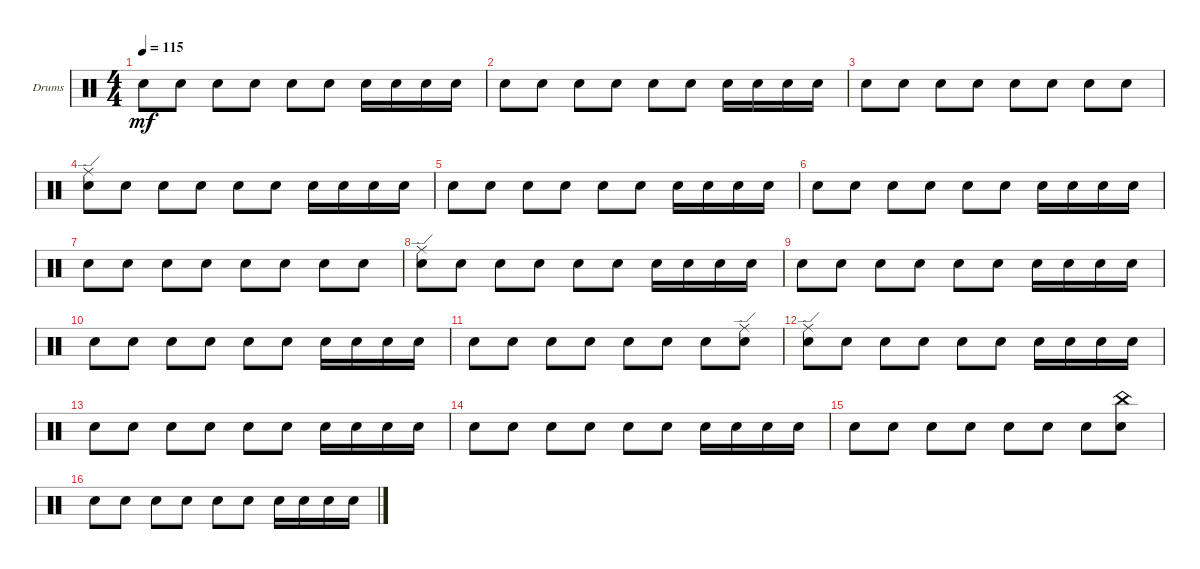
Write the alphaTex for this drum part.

\defaultSystemsLayout 4
\bracketExtendMode groupsimilarinstruments
\firstSystemTrackNameOrientation horizontal
\otherSystemsTrackNameOrientation horizontal
\track ("Drumkit" "Drums") {instrument percussion}
\staff {score}
\articulation defaults
\ts (4 4)
\tempo 115
\clef neutral
\ks c "Snare (hit) 2".8{dy mf} "Snare (hit) 2".8 "Snare (hit) 2".8 "Snare (hit) 2".8 "Snare (hit) 2".8 "Snare (hit) 2".8 "Snare (hit) 2".16 "Snare (hit) 2".16 "Snare (hit) 2".16 "Snare (hit) 2".16
|
"Snare (hit) 2".8 "Snare (hit) 2".8 "Snare (hit) 2".8 "Snare (hit) 2".8 "Snare (hit) 2".8 "Snare (hit) 2".8 "Snare (hit) 2".16 "Snare (hit) 2".16 "Snare (hit) 2".16 "Snare (hit) 2".16 |
"Snare (hit) 2".8 "Snare (hit) 2".8 "Snare (hit) 2".8 "Snare (hit) 2".8 "Snare (hit) 2".8 "Snare (hit) 2".8 "Snare (hit) 2".8 "Snare (hit) 2".8 |
("Snare (hit) 2" "Ride (edge)").8 "Snare (hit) 2".8 "Snare (hit) 2".8 "Snare (hit) 2".8 "Snare (hit) 2".8 "Snare (hit) 2".8 "Snare (hit) 2".16 "Snare (hit) 2".16 "Snare (hit) 2".16 "Snare (hit) 2".16 |
"Snare (hit) 2".8 "Snare (hit) 2".8 "Snare (hit) 2".8 "Snare (hit) 2".8 "Snare (hit) 2".8 "Snare (hit) 2".8 "Snare (hit) 2".16 "Snare (hit) 2".16 "Snare (hit) 2".16 "Snare (hit) 2".16 |
"Snare (hit) 2".8 "Snare (hit) 2".8 "Snare (hit) 2".8 "Snare (hit) 2".8 "Snare (hit) 2".8 "Snare (hit) 2".8 "Snare (hit) 2".16 "Snare (hit) 2".16 "Snare (hit) 2".16 "Snare (hit) 2".16 |
"Snare (hit) 2".8 "Snare (hit) 2".8 "Snare (hit) 2".8 "Snare (hit) 2".8 "Snare (hit) 2".8 "Snare (hit) 2".8 "Snare (hit) 2".8 "Snare (hit) 2".8 |
("Ride (edge)" "Snare (hit) 2").8 "Snare (hit) 2".8 "Snare (hit) 2".8 "Snare (hit) 2".8 "Snare (hit) 2".8 "Snare (hit) 2".8 "Snare (hit) 2".16 "Snare (hit) 2".16 "Snare (hit) 2".16 "Snare (hit) 2".16 |
"Snare (hit) 2".8 "Snare (hit) 2".8 "Snare (hit) 2".8 "Snare (hit) 2".8 "Snare (hit) 2".8 "Snare (hit) 2".8 "Snare (hit) 2".16 "Snare (hit) 2".16 "Snare (hit) 2".16 "Snare (hit) 2".16 |
"Snare (hit) 2".8 "Snare (hit) 2".8 "Snare (hit) 2".8 "Snare (hit) 2".8 "Snare (hit) 2".8 "Snare (hit) 2".8 "Snare (hit) 2".16 "Snare (hit) 2".16 "Snare (hit) 2".16 "Snare (hit) 2".16 |
"Snare (hit) 2".8 "Snare (hit) 2".8 "Snare (hit) 2".8 "Snare (hit) 2".8 "Snare (hit) 2".8 "Snare (hit) 2".8 "Snare (hit) 2".8 ("Snare (hit) 2" "Ride (edge)").8 |
("Snare (hit) 2" "Ride (edge)").8 "Snare (hit) 2".8 "Snare (hit) 2".8 "Snare (hit) 2".8 "Snare (hit) 2".8 "Snare (hit) 2".8 "Snare (hit) 2".16 "Snare (hit) 2".16 "Snare (hit) 2".16 "Snare (hit) 2".16 |
"Snare (hit) 2".8 "Snare (hit) 2".8 "Snare (hit) 2".8 "Snare (hit) 2".8 "Snare (hit) 2".8 "Snare (hit) 2".8 "Snare (hit) 2".16 "Snare (hit) 2".16 "Snare (hit) 2".16 "Snare (hit) 2".16 |
"Snare (hit) 2".8 "Snare (hit) 2".8 "Snare (hit) 2".8 "Snare (hit) 2".8 "Snare (hit) 2".8 "Snare (hit) 2".8 "Snare (hit) 2".16 "Snare (hit) 2".16 "Snare (hit) 2".16 "Snare (hit) 2".16 |
"Snare (hit) 2".8 "Snare (hit) 2".8 "Snare (hit) 2".8 "Snare (hit) 2".8 "Snare (hit) 2".8 "Snare (hit) 2".8 "Snare (hit) 2".8 ("Snare (hit) 2" "China (hit)").8 |
"Snare (hit) 2".8 "Snare (hit) 2".8 "Snare (hit) 2".8 "Snare (hit) 2".8 "Snare (hit) 2".8 "Snare (hit) 2".8 "Snare (hit) 2".16 "Snare (hit) 2".16 "Snare (hit) 2".16 "Snare (hit) 2".16
